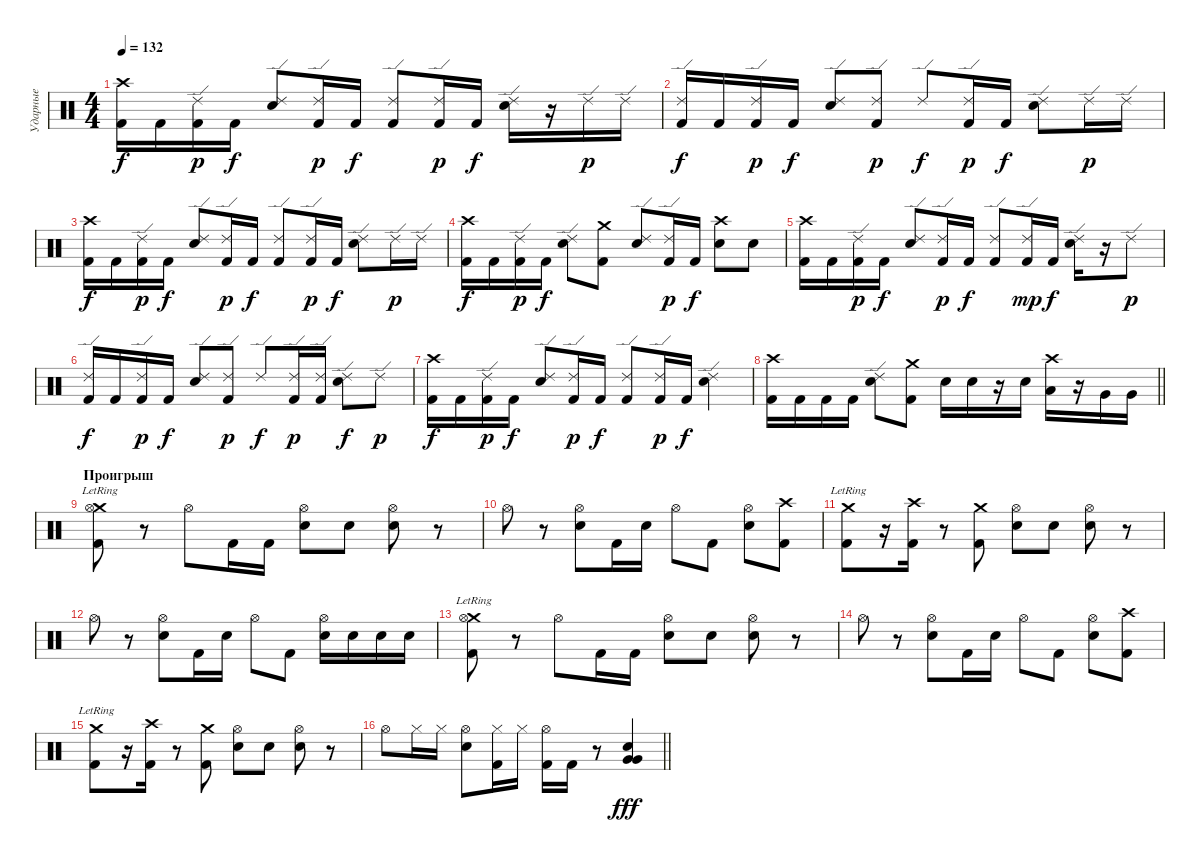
\track ("Ударные" "Ударные") {instrument percussion}
\staff {score}
\articulation defaults
\ts (4 4)
\tempo 132
\clef neutral
\ks c
("Crash high (hit)" "Kick (hit) 2").16{dy f} "Kick (hit) 2".16 ("Kick (hit) 2" "Ride (edge) 2").16{dy p} "Kick (hit) 2".16{dy f} ("Electric Snare (hit)" "Ride (edge) 2").8 ("Kick (hit) 2" "Ride (edge) 2").16{dy p} "Kick (hit) 2".16{dy f} ("Kick (hit) 2" "Ride (edge) 2").8 ("Kick (hit) 2" "Ride (edge) 2").16{dy p} "Kick (hit) 2".16{dy f} ("Electric Snare (hit)" "Ride (edge) 2").16 r.16 "Ride (edge) 2".16{dy p} "Ride (edge) 2".16 |
("Kick (hit) 2" "Ride (edge) 2").16{dy f} "Kick (hit) 2".16 ("Kick (hit) 2" "Ride (edge) 2").16{dy p} "Kick (hit) 2".16{dy f} ("Electric Snare (hit)" "Ride (edge) 2").8 ("Kick (hit) 2" "Ride (edge) 2").8{dy p} "Ride (edge) 2".8{dy f} ("Kick (hit) 2" "Ride (edge) 2").16{dy p} "Kick (hit) 2".16{dy f} ("Electric Snare (hit)" "Ride (edge) 2").8 "Ride (edge) 2".16{dy p} "Ride (edge) 2".16 |
("Crash high (hit)" "Kick (hit) 2").16{dy f} "Kick (hit) 2".16 ("Kick (hit) 2" "Ride (edge) 2").16{dy p} "Kick (hit) 2".16{dy f} ("Electric Snare (hit)" "Ride (edge) 2").8 ("Kick (hit) 2" "Ride (edge) 2").16{dy p} "Kick (hit) 2".16{dy f} ("Kick (hit) 2" "Ride (edge) 2").8 ("Kick (hit) 2" "Ride (edge) 2").16{dy p} "Kick (hit) 2".16{dy f} ("Electric Snare (hit)" "Ride (edge) 2").8 "Ride (edge) 2".16{dy p} "Ride (edge) 2".16 |
("Crash high (hit)" "Kick (hit) 2").16{dy f} "Kick (hit) 2".16 ("Kick (hit) 2" "Ride (edge) 2").16{dy p} "Kick (hit) 2".16{dy f} ("Electric Snare (hit)" "Ride (edge) 2").8 ("Crash medium (hit)" "Kick (hit) 2").8 ("Electric Snare (hit)" "Ride (edge) 2").8 ("Kick (hit) 2" "Ride (edge) 2").16{dy p} "Kick (hit) 2".16{dy f} ("Crash high (hit)" "Electric Snare (hit)").8 "Electric Snare (hit)".8 |
("Crash high (hit)" "Kick (hit) 2").16 "Kick (hit) 2".16 ("Kick (hit) 2" "Ride (edge) 2").16{dy p} "Kick (hit) 2".16{dy f} ("Electric Snare (hit)" "Ride (edge) 2").8 ("Kick (hit) 2" "Ride (edge) 2").16{dy p} "Kick (hit) 2".16{dy f} ("Kick (hit) 2" "Ride (edge) 2").8 ("Kick (hit) 2" "Ride (edge) 2").16{dy mp} "Kick (hit) 2".16{dy f} ("Electric Snare (hit)" "Ride (edge) 2").16 r.16 "Ride (edge) 2".8{dy p} |
("Kick (hit) 2" "Ride (edge) 2").16{dy f} "Kick (hit) 2".16 ("Kick (hit) 2" "Ride (edge) 2").16{dy p} "Kick (hit) 2".16{dy f} ("Electric Snare (hit)" "Ride (edge) 2").8 ("Kick (hit) 2" "Ride (edge) 2").8{dy p} "Ride (edge) 2".8{dy f} ("Kick (hit) 2" "Ride (edge) 2").16{dy p} ("Kick (hit) 2" "Ride (edge) 2").16 ("Electric Snare (hit)" "Ride (edge) 2").8{dy f} "Ride (edge) 2".8{dy p} |
("Crash high (hit)" "Kick (hit) 2").16{dy f} "Kick (hit) 2".16 ("Kick (hit) 2" "Ride (edge) 2").16{dy p} "Kick (hit) 2".16{dy f} ("Electric Snare (hit)" "Ride (edge) 2").8 ("Kick (hit) 2" "Ride (edge) 2").16{dy p} "Kick (hit) 2".16{dy f} ("Kick (hit) 2" "Ride (edge) 2").8 ("Kick (hit) 2" "Ride (edge) 2").16{dy p} "Kick (hit) 2".16{dy f} ("Electric Snare (hit)" "Ride (edge) 2").4 |
\barLineRight lightlight
("Crash high (hit)" "Kick (hit) 2").16 "Kick (hit) 2".16 "Kick (hit) 2".16 "Kick (hit) 2".16 ("Electric Snare (hit)" "Ride (edge) 2").8 ("Crash medium (hit)" "Kick (hit) 2").8 "Electric Snare (hit)".16 "Electric Snare (hit)".16 r.16 "Electric Snare (hit)".16 ("Crash high (hit)" "Low Tom (hit)").16 r.16 "Very Low Tom (hit)".16 "Very Low Tom (hit)".16 |
\section ("" "Проигрыш")
("Crash medium (hit)"{lr} "Kick (hit) 2" "Hi-Hat (open)").8 r.8 "Hi-Hat (open)".8 "Kick (hit) 2".16 "Kick (hit) 2".16 ("Electric Snare (hit)" "Hi-Hat (open)").8 "Electric Snare (hit)".8 ("Electric Snare (hit)" "Hi-Hat (open)").8 r.8 |
"Hi-Hat (open)".8 r.8 ("Electric Snare (hit)" "Hi-Hat (open)").8 "Kick (hit) 2".16 "Electric Snare (hit)".16 "Hi-Hat (open)".8 "Kick (hit) 2".8 ("Electric Snare (hit)" "Hi-Hat (open)").8 ("Crash high (hit)" "Kick (hit) 2").8 |
("Crash medium (hit)"{lr} "Kick (hit) 2").8 r.16 ("Crash high (hit)" "Kick (hit) 2").16 r.8 ("Crash medium (hit)" "Kick (hit) 2").8 ("Electric Snare (hit)" "Hi-Hat (open)").8 "Electric Snare (hit)".8 ("Electric Snare (hit)" "Hi-Hat (open)").8 r.8 |
"Hi-Hat (open)".8 r.8 ("Electric Snare (hit)" "Hi-Hat (open)").8 "Kick (hit) 2".16 "Electric Snare (hit)".16 "Hi-Hat (open)".8 "Kick (hit) 2".8 ("Electric Snare (hit)" "Hi-Hat (open)").16 "Electric Snare (hit)".16 "Electric Snare (hit)".16 "Electric Snare (hit)".16 |
("Crash medium (hit)"{lr} "Kick (hit) 2" "Hi-Hat (open)").8 r.8 "Hi-Hat (open)".8 "Kick (hit) 2".16 "Kick (hit) 2".16 ("Electric Snare (hit)" "Hi-Hat (open)").8 "Electric Snare (hit)".8 ("Electric Snare (hit)" "Hi-Hat (open)").8 r.8 |
"Hi-Hat (open)".8 r.8 ("Electric Snare (hit)" "Hi-Hat (open)").8 "Kick (hit) 2".16 "Electric Snare (hit)".16 "Hi-Hat (open)".8 "Kick (hit) 2".8 ("Electric Snare (hit)" "Hi-Hat (open)").8 ("Crash high (hit)" "Kick (hit) 2").8 |
("Crash medium (hit)"{lr} "Kick (hit) 2").8 r.16 ("Crash high (hit)" "Kick (hit) 2").16 r.8 ("Crash medium (hit)" "Kick (hit) 2").8 ("Electric Snare (hit)" "Hi-Hat (open)").8 "Electric Snare (hit)".8 ("Electric Snare (hit)" "Hi-Hat (open)").8 r.8 |
\barLineRight lightlight "Hi-Hat (open)".8 "Hi-Hat (closed)".16 "Hi-Hat (closed)".16
("Electric Snare (hit)" "Hi-Hat (open)").8 ("Kick (hit) 2" "Hi-Hat (closed)").16 "Hi-Hat (closed)".16 ("Kick (hit) 2" "Hi-Hat (open)").16 "Kick (hit) 2".16 r.8 ("Very Low Tom (hit)" "Very Low Tom (hit)" "Electric Snare (hit)").4{dy fff}
